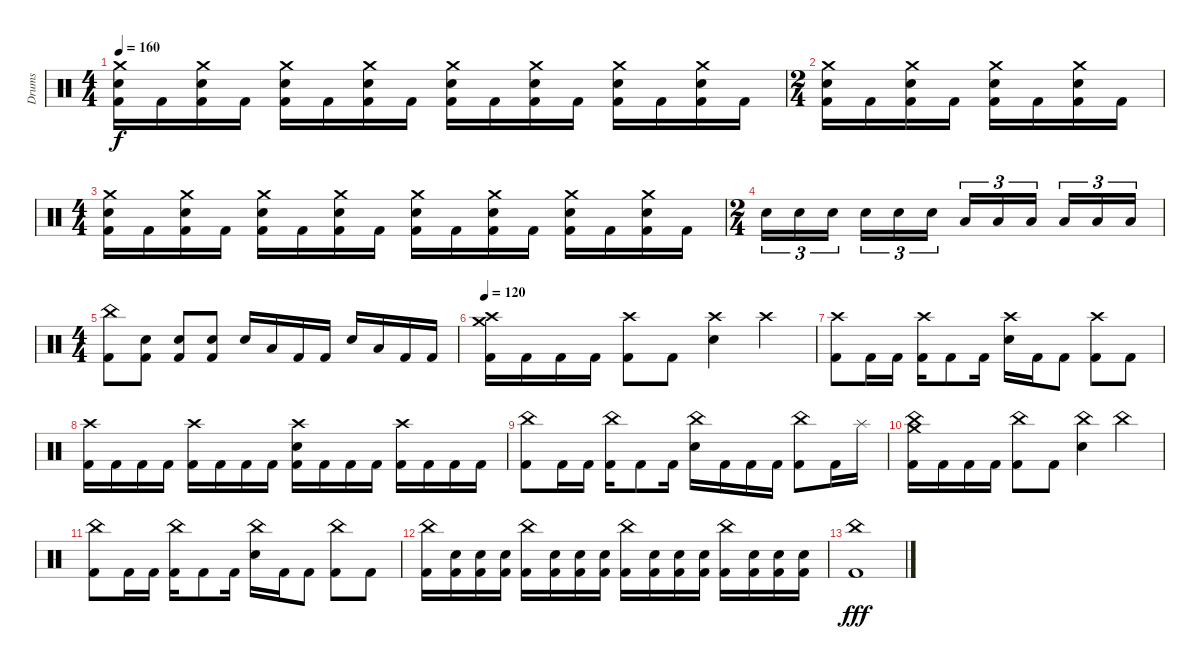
\track ("Drums" "Drums") {instrument percussion}
\staff {score}
\articulation defaults
\ts (4 4)
\tempo 160
\clef neutral
\ks c
("Crash medium (hit)" "Electric Snare (hit)" "Kick (hit) 2").16{dy f} "Kick (hit) 2".16 ("Crash medium (hit)" "Electric Snare (hit)" "Kick (hit) 2").16 "Kick (hit) 2".16 ("Crash medium (hit)" "Electric Snare (hit)" "Kick (hit) 2").16 "Kick (hit) 2".16 ("Crash medium (hit)" "Electric Snare (hit)" "Kick (hit) 2").16 "Kick (hit) 2".16 ("Crash medium (hit)" "Electric Snare (hit)" "Kick (hit) 2").16 "Kick (hit) 2".16 ("Crash medium (hit)" "Electric Snare (hit)" "Kick (hit) 2").16 "Kick (hit) 2".16 ("Crash medium (hit)" "Electric Snare (hit)" "Kick (hit) 2").16 "Kick (hit) 2".16 ("Crash medium (hit)" "Electric Snare (hit)" "Kick (hit) 2").16 "Kick (hit) 2".16 |
\ts (2 4)
("Crash medium (hit)" "Electric Snare (hit)" "Kick (hit) 2").16 "Kick (hit) 2".16 ("Crash medium (hit)" "Electric Snare (hit)" "Kick (hit) 2").16 "Kick (hit) 2".16 ("Crash medium (hit)" "Electric Snare (hit)" "Kick (hit) 2").16 "Kick (hit) 2".16 ("Crash medium (hit)" "Electric Snare (hit)" "Kick (hit) 2").16 "Kick (hit) 2".16 |
\ts (4 4)
("Crash medium (hit)" "Electric Snare (hit)" "Kick (hit) 2").16 "Kick (hit) 2".16 ("Crash medium (hit)" "Electric Snare (hit)" "Kick (hit) 2").16 "Kick (hit) 2".16 ("Crash medium (hit)" "Electric Snare (hit)" "Kick (hit) 2").16 "Kick (hit) 2".16 ("Crash medium (hit)" "Electric Snare (hit)" "Kick (hit) 2").16 "Kick (hit) 2".16 ("Crash medium (hit)" "Electric Snare (hit)" "Kick (hit) 2").16 "Kick (hit) 2".16 ("Crash medium (hit)" "Electric Snare (hit)" "Kick (hit) 2").16 "Kick (hit) 2".16 ("Crash medium (hit)" "Electric Snare (hit)" "Kick (hit) 2").16 "Kick (hit) 2".16 ("Crash medium (hit)" "Electric Snare (hit)" "Kick (hit) 2").16 "Kick (hit) 2".16 |
\ts (2 4)
"Electric Snare (hit)".16{tu (3 2)} "Electric Snare (hit)".16{tu (3 2)} "Electric Snare (hit)".16{tu (3 2) beam splitsecondary} "Electric Snare (hit)".16{tu (3 2)} "Electric Snare (hit)".16{tu (3 2)} "Electric Snare (hit)".16{tu (3 2)} "Low Tom (hit)".16{tu (3 2)} "Low Tom (hit)".16{tu (3 2)} "Low Tom (hit)".16{tu (3 2) beam splitsecondary} "Low Tom (hit)".16{tu (3 2)} "Low Tom (hit)".16{tu (3 2)} "Low Tom (hit)".16{tu (3 2)} |
\ts (4 4)
("China (hit)" "Kick (hit) 2").8 ("Electric Snare (hit)" "Kick (hit) 2").8 ("Electric Snare (hit)" "Kick (hit) 2").8 ("Electric Snare (hit)" "Kick (hit) 2").8 "Electric Snare (hit)".16 "Low Tom (hit)".16 "Kick (hit) 2".16 "Kick (hit) 2".16 "Electric Snare (hit)".16 "Low Tom (hit)".16 "Kick (hit) 2".16 "Kick (hit) 2".16 |
\tempo 120
("Crash high (hit)" "Crash medium (hit)" "Kick (hit) 2").16 "Kick (hit) 2".16 "Kick (hit) 2".16 "Kick (hit) 2".16 ("Crash high (hit)" "Kick (hit) 2").8 "Kick (hit) 2".8 ("Crash high (hit)" "Electric Snare (hit)").4 "Crash high (hit)".4 |
("Crash high (hit)" "Kick (hit) 2").8 "Kick (hit) 2".16 "Kick (hit) 2".16 ("Crash high (hit)" "Kick (hit) 2").16 "Kick (hit) 2".8 "Kick (hit) 2".16 ("Crash high (hit)" "Electric Snare (hit)").16 "Kick (hit) 2".16 "Kick (hit) 2".8 ("Crash high (hit)" "Kick (hit) 2").8 "Kick (hit) 2".8 |
("Crash high (hit)" "Kick (hit) 2").16 "Kick (hit) 2".16 "Kick (hit) 2".16 "Kick (hit) 2".16 ("Crash high (hit)" "Kick (hit) 2").16 "Kick (hit) 2".16 "Kick (hit) 2".16 "Kick (hit) 2".16 ("Crash high (hit)" "Electric Snare (hit)" "Kick (hit) 2").16 "Kick (hit) 2".16 "Kick (hit) 2".16 "Kick (hit) 2".16 ("Crash high (hit)" "Kick (hit) 2").16 "Kick (hit) 2".16 "Kick (hit) 2".16 "Kick (hit) 2".16 |
("China (hit)" "Kick (hit) 2").8 "Kick (hit) 2".16 "Kick (hit) 2".16 ("China (hit)" "Kick (hit) 2").16 "Kick (hit) 2".8 "Kick (hit) 2".16 ("China (hit)" "Electric Snare (hit)").16 "Kick (hit) 2".16 "Kick (hit) 2".16 "Kick (hit) 2".16 ("China (hit)" "Kick (hit) 2").8 "Kick (hit) 2".16 "Splash (hit)".16 |
("China (hit)" "Crash medium (hit)" "Kick (hit) 2").16 "Kick (hit) 2".16 "Kick (hit) 2".16 "Kick (hit) 2".16 ("China (hit)" "Kick (hit) 2").8 "Kick (hit) 2".8 ("China (hit)" "Electric Snare (hit)").4 "China (hit)".4 |
("China (hit)" "Kick (hit) 2").8 "Kick (hit) 2".16 "Kick (hit) 2".16 ("China (hit)" "Kick (hit) 2").16 "Kick (hit) 2".8 "Kick (hit) 2".16 ("China (hit)" "Electric Snare (hit)").16 "Kick (hit) 2".16 "Kick (hit) 2".8 ("China (hit)" "Kick (hit) 2").8 "Kick (hit) 2".8 |
("China (hit)" "Kick (hit) 2").16 ("Electric Snare (hit)" "Kick (hit) 2").16 ("Electric Snare (hit)" "Kick (hit) 2").16 ("Electric Snare (hit)" "Kick (hit) 2").16 ("China (hit)" "Kick (hit) 2").16 ("Electric Snare (hit)" "Kick (hit) 2").16 ("Electric Snare (hit)" "Kick (hit) 2").16 ("Electric Snare (hit)" "Kick (hit) 2").16 ("China (hit)" "Kick (hit) 2").16 ("Electric Snare (hit)" "Kick (hit) 2").16 ("Electric Snare (hit)" "Kick (hit) 2").16 ("Electric Snare (hit)" "Kick (hit) 2").16 ("China (hit)" "Kick (hit) 2").16 ("Electric Snare (hit)" "Kick (hit) 2").16 ("Electric Snare (hit)" "Kick (hit) 2").16 ("Electric Snare (hit)" "Kick (hit) 2").16 |
("China (hit)" "Kick (hit) 2").1{dy fff}
